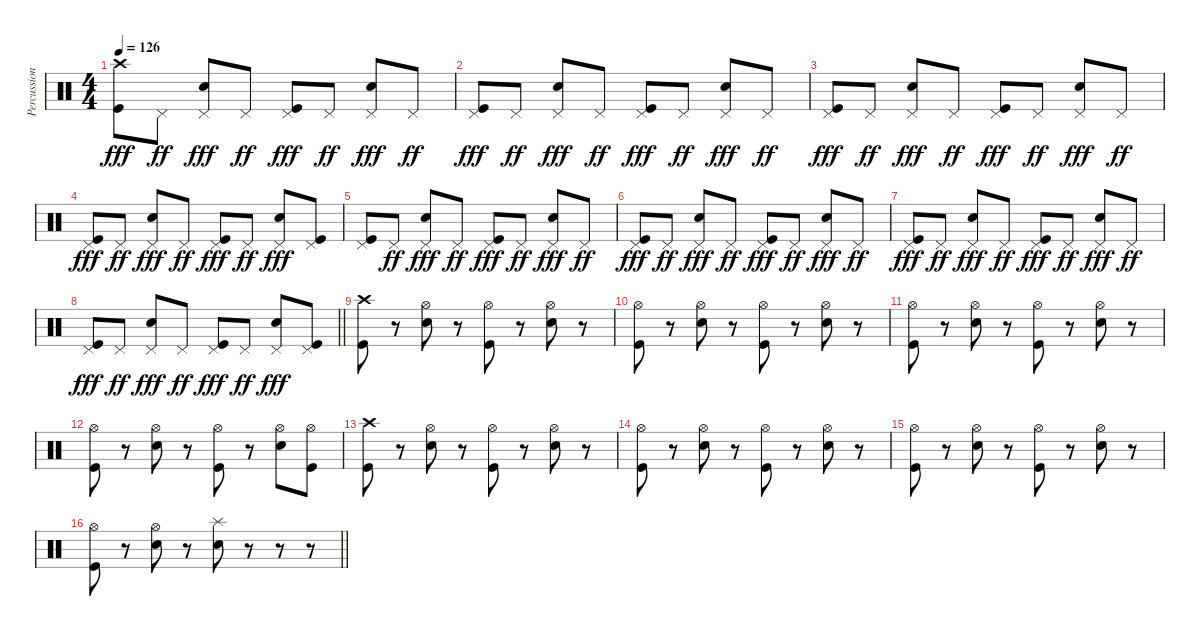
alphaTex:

\track ("Percussions" "Percussion") {instrument percussion}
\staff {score}
\articulation defaults
\ts (4 4)
\tempo 126
\clef neutral
\ks c
("Crash high (hit)" "Kick (hit)").8{dy fff} "Pedal Hi-Hat (hit)".8{dy ff} ("Pedal Hi-Hat (hit)" "Electric Snare (hit)").8{dy fff} "Pedal Hi-Hat (hit)".8{dy ff} ("Pedal Hi-Hat (hit)" "Kick (hit)").8{dy fff} "Pedal Hi-Hat (hit)".8{dy ff} ("Pedal Hi-Hat (hit)" "Electric Snare (hit)").8{dy fff} "Pedal Hi-Hat (hit)".8{dy ff} |
("Pedal Hi-Hat (hit)" "Kick (hit)").8{dy fff} "Pedal Hi-Hat (hit)".8{dy ff} ("Pedal Hi-Hat (hit)" "Electric Snare (hit)").8{dy fff} "Pedal Hi-Hat (hit)".8{dy ff} ("Pedal Hi-Hat (hit)" "Kick (hit)").8{dy fff} "Pedal Hi-Hat (hit)".8{dy ff} ("Pedal Hi-Hat (hit)" "Electric Snare (hit)").8{dy fff} "Pedal Hi-Hat (hit)".8{dy ff} |
("Pedal Hi-Hat (hit)" "Kick (hit)").8{dy fff} "Pedal Hi-Hat (hit)".8{dy ff} ("Pedal Hi-Hat (hit)" "Electric Snare (hit)").8{dy fff} "Pedal Hi-Hat (hit)".8{dy ff} ("Pedal Hi-Hat (hit)" "Kick (hit)").8{dy fff} "Pedal Hi-Hat (hit)".8{dy ff} ("Pedal Hi-Hat (hit)" "Electric Snare (hit)").8{dy fff} "Pedal Hi-Hat (hit)".8{dy ff} |
("Pedal Hi-Hat (hit)" "Kick (hit)").8{dy fff} "Pedal Hi-Hat (hit)".8{dy ff} ("Pedal Hi-Hat (hit)" "Electric Snare (hit)").8{dy fff} "Pedal Hi-Hat (hit)".8{dy ff} ("Pedal Hi-Hat (hit)" "Kick (hit)").8{dy fff} "Pedal Hi-Hat (hit)".8{dy ff} ("Pedal Hi-Hat (hit)" "Electric Snare (hit)").8{dy fff} ("Pedal Hi-Hat (hit)" "Kick (hit)").8 |
("Pedal Hi-Hat (hit)" "Kick (hit)").8 "Pedal Hi-Hat (hit)".8{dy ff} ("Pedal Hi-Hat (hit)" "Electric Snare (hit)").8{dy fff} "Pedal Hi-Hat (hit)".8{dy ff} ("Pedal Hi-Hat (hit)" "Kick (hit)").8{dy fff} "Pedal Hi-Hat (hit)".8{dy ff} ("Pedal Hi-Hat (hit)" "Electric Snare (hit)").8{dy fff} "Pedal Hi-Hat (hit)".8{dy ff} |
("Pedal Hi-Hat (hit)" "Kick (hit)").8{dy fff} "Pedal Hi-Hat (hit)".8{dy ff} ("Pedal Hi-Hat (hit)" "Electric Snare (hit)").8{dy fff} "Pedal Hi-Hat (hit)".8{dy ff} ("Pedal Hi-Hat (hit)" "Kick (hit)").8{dy fff} "Pedal Hi-Hat (hit)".8{dy ff} ("Pedal Hi-Hat (hit)" "Electric Snare (hit)").8{dy fff} "Pedal Hi-Hat (hit)".8{dy ff} |
("Pedal Hi-Hat (hit)" "Kick (hit)").8{dy fff} "Pedal Hi-Hat (hit)".8{dy ff} ("Pedal Hi-Hat (hit)" "Electric Snare (hit)").8{dy fff} "Pedal Hi-Hat (hit)".8{dy ff} ("Pedal Hi-Hat (hit)" "Kick (hit)").8{dy fff} "Pedal Hi-Hat (hit)".8{dy ff} ("Pedal Hi-Hat (hit)" "Electric Snare (hit)").8{dy fff} "Pedal Hi-Hat (hit)".8{dy ff} |
\barLineRight lightlight
("Pedal Hi-Hat (hit)" "Kick (hit)").8{dy fff} "Pedal Hi-Hat (hit)".8{dy ff} ("Pedal Hi-Hat (hit)" "Electric Snare (hit)").8{dy fff} "Pedal Hi-Hat (hit)".8{dy ff} ("Pedal Hi-Hat (hit)" "Kick (hit)").8{dy fff} "Pedal Hi-Hat (hit)".8{dy ff} ("Pedal Hi-Hat (hit)" "Electric Snare (hit)").8{dy fff} ("Pedal Hi-Hat (hit)" "Kick (hit)").8 |
("Crash high (hit)" "Kick (hit)").8 r.8 ("Hi-Hat (open)" "Electric Snare (hit)").8 r.8 ("Hi-Hat (open)" "Kick (hit)").8 r.8 ("Hi-Hat (open)" "Electric Snare (hit)").8 r.8 |
("Hi-Hat (open)" "Kick (hit)").8 r.8 ("Hi-Hat (open)" "Electric Snare (hit)").8 r.8 ("Hi-Hat (open)" "Kick (hit)").8 r.8 ("Hi-Hat (open)" "Electric Snare (hit)").8 r.8 |
("Hi-Hat (open)" "Kick (hit)").8 r.8 ("Hi-Hat (open)" "Electric Snare (hit)").8 r.8 ("Hi-Hat (open)" "Kick (hit)").8 r.8 ("Hi-Hat (open)" "Electric Snare (hit)").8 r.8 |
("Hi-Hat (open)" "Kick (hit)").8 r.8 ("Hi-Hat (open)" "Electric Snare (hit)").8 r.8 ("Hi-Hat (open)" "Kick (hit)").8 r.8 ("Hi-Hat (open)" "Electric Snare (hit)").8 ("Hi-Hat (open)" "Kick (hit)").8 |
("Crash high (hit)" "Kick (hit)").8 r.8 ("Hi-Hat (open)" "Electric Snare (hit)").8 r.8 ("Hi-Hat (open)" "Kick (hit)").8 r.8 ("Hi-Hat (open)" "Electric Snare (hit)").8 r.8 |
("Hi-Hat (open)" "Kick (hit)").8 r.8 ("Hi-Hat (open)" "Electric Snare (hit)").8 r.8 ("Hi-Hat (open)" "Kick (hit)").8 r.8 ("Hi-Hat (open)" "Electric Snare (hit)").8 r.8 |
("Hi-Hat (open)" "Kick (hit)").8 r.8 ("Hi-Hat (open)" "Electric Snare (hit)").8 r.8 ("Hi-Hat (open)" "Kick (hit)").8 r.8 ("Hi-Hat (open)" "Electric Snare (hit)").8 r.8 |
\barLineRight lightlight
("Hi-Hat (open)" "Kick (hit)").8 r.8 ("Hi-Hat (open)" "Electric Snare (hit)").8 r.8 ("Splash (hit)" "Electric Snare (hit)").8 r.8 r.8 r.8
